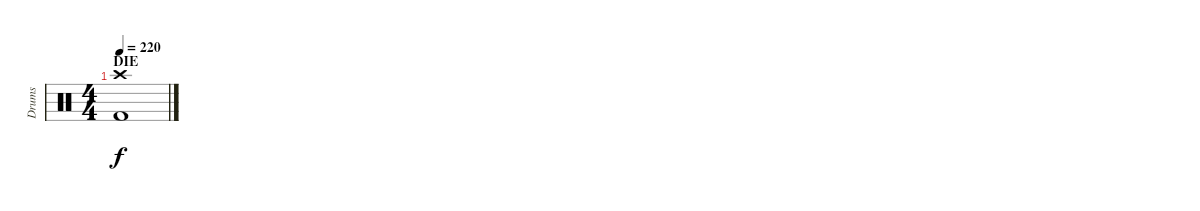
\track ("Drums" "Drums") {instrument percussion}
\staff {score}
\articulation defaults
\ts (4 4)
\section ("" "DIE")
\tempo 220
\clef neutral
\ks c
("Crash high (hit)" "Kick (hit) 2").1{dy f}
